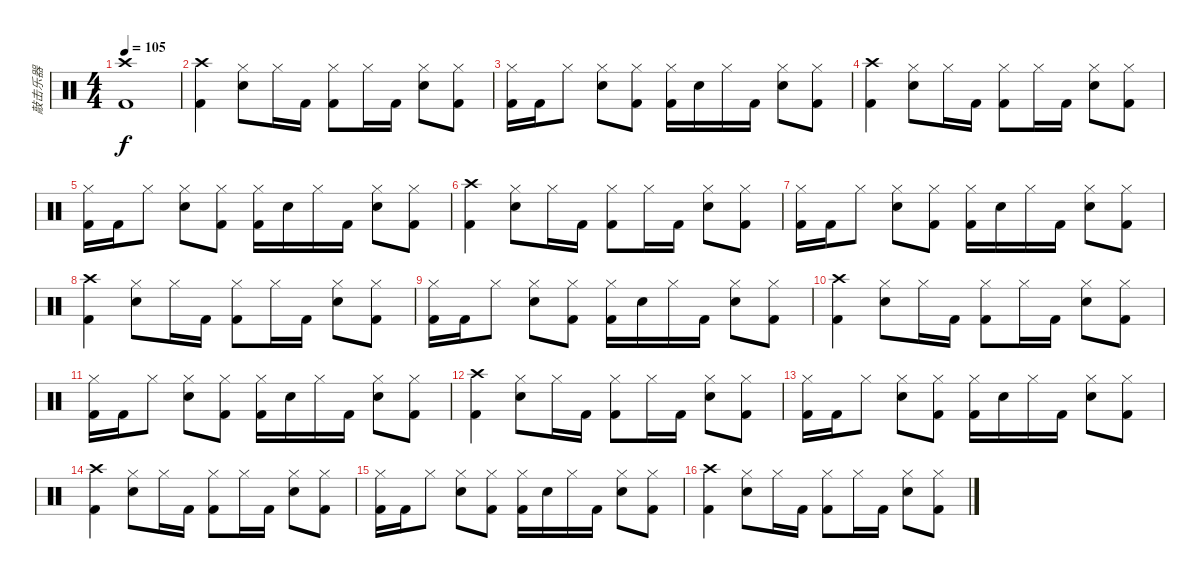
\track ("敲击乐器" "敲击乐器") {instrument percussion}
\staff {score}
\articulation defaults
\ts (4 4)
\tempo 105
\clef neutral
\ks c
("Crash high (hit)" "Kick (hit) 2").1{dy f} |
("Crash high (hit)" "Kick (hit) 2").4 ("Hi-Hat (closed)" "Snare (hit) 2").8 "Hi-Hat (closed)".16 "Kick (hit) 2".16 ("Hi-Hat (closed)" "Kick (hit) 2").8 "Hi-Hat (closed)".16 "Kick (hit) 2".16 ("Hi-Hat (closed)" "Snare (hit) 2").8 ("Hi-Hat (closed)" "Kick (hit) 2").8 |
("Hi-Hat (closed)" "Kick (hit) 2").16 "Kick (hit) 2".16 "Hi-Hat (closed)".8 ("Hi-Hat (closed)" "Snare (hit) 2").8 ("Hi-Hat (closed)" "Kick (hit) 2").8 ("Hi-Hat (closed)" "Kick (hit) 2").16 "Snare (hit) 2".16 "Hi-Hat (closed)".16 "Kick (hit) 2".16 ("Hi-Hat (closed)" "Snare (hit) 2").8 ("Hi-Hat (closed)" "Kick (hit) 2").8 |
("Crash high (hit)" "Kick (hit) 2").4 ("Hi-Hat (closed)" "Snare (hit) 2").8 "Hi-Hat (closed)".16 "Kick (hit) 2".16 ("Hi-Hat (closed)" "Kick (hit) 2").8 "Hi-Hat (closed)".16 "Kick (hit) 2".16 ("Hi-Hat (closed)" "Snare (hit) 2").8 ("Hi-Hat (closed)" "Kick (hit) 2").8 |
("Hi-Hat (closed)" "Kick (hit) 2").16 "Kick (hit) 2".16 "Hi-Hat (closed)".8 ("Hi-Hat (closed)" "Snare (hit) 2").8 ("Hi-Hat (closed)" "Kick (hit) 2").8 ("Hi-Hat (closed)" "Kick (hit) 2").16 "Snare (hit) 2".16 "Hi-Hat (closed)".16 "Kick (hit) 2".16 ("Hi-Hat (closed)" "Snare (hit) 2").8 ("Hi-Hat (closed)" "Kick (hit) 2").8 |
("Crash high (hit)" "Kick (hit) 2").4 ("Hi-Hat (closed)" "Snare (hit) 2").8 "Hi-Hat (closed)".16 "Kick (hit) 2".16 ("Hi-Hat (closed)" "Kick (hit) 2").8 "Hi-Hat (closed)".16 "Kick (hit) 2".16 ("Hi-Hat (closed)" "Snare (hit) 2").8 ("Hi-Hat (closed)" "Kick (hit) 2").8 |
("Hi-Hat (closed)" "Kick (hit) 2").16 "Kick (hit) 2".16 "Hi-Hat (closed)".8 ("Hi-Hat (closed)" "Snare (hit) 2").8 ("Hi-Hat (closed)" "Kick (hit) 2").8 ("Hi-Hat (closed)" "Kick (hit) 2").16 "Snare (hit) 2".16 "Hi-Hat (closed)".16 "Kick (hit) 2".16 ("Hi-Hat (closed)" "Snare (hit) 2").8 ("Hi-Hat (closed)" "Kick (hit) 2").8 |
("Crash high (hit)" "Kick (hit) 2").4 ("Hi-Hat (closed)" "Snare (hit) 2").8 "Hi-Hat (closed)".16 "Kick (hit) 2".16 ("Hi-Hat (closed)" "Kick (hit) 2").8 "Hi-Hat (closed)".16 "Kick (hit) 2".16 ("Hi-Hat (closed)" "Snare (hit) 2").8 ("Hi-Hat (closed)" "Kick (hit) 2").8 |
("Hi-Hat (closed)" "Kick (hit) 2").16 "Kick (hit) 2".16 "Hi-Hat (closed)".8 ("Hi-Hat (closed)" "Snare (hit) 2").8 ("Hi-Hat (closed)" "Kick (hit) 2").8 ("Hi-Hat (closed)" "Kick (hit) 2").16 "Snare (hit) 2".16 "Hi-Hat (closed)".16 "Kick (hit) 2".16 ("Hi-Hat (closed)" "Snare (hit) 2").8 ("Hi-Hat (closed)" "Kick (hit) 2").8 |
("Crash high (hit)" "Kick (hit) 2").4 ("Hi-Hat (closed)" "Snare (hit) 2").8 "Hi-Hat (closed)".16 "Kick (hit) 2".16 ("Hi-Hat (closed)" "Kick (hit) 2").8 "Hi-Hat (closed)".16 "Kick (hit) 2".16 ("Hi-Hat (closed)" "Snare (hit) 2").8 ("Hi-Hat (closed)" "Kick (hit) 2").8 |
("Hi-Hat (closed)" "Kick (hit) 2").16 "Kick (hit) 2".16 "Hi-Hat (closed)".8 ("Hi-Hat (closed)" "Snare (hit) 2").8 ("Hi-Hat (closed)" "Kick (hit) 2").8 ("Hi-Hat (closed)" "Kick (hit) 2").16 "Snare (hit) 2".16 "Hi-Hat (closed)".16 "Kick (hit) 2".16 ("Hi-Hat (closed)" "Snare (hit) 2").8 ("Hi-Hat (closed)" "Kick (hit) 2").8 |
("Crash high (hit)" "Kick (hit) 2").4 ("Hi-Hat (closed)" "Snare (hit) 2").8 "Hi-Hat (closed)".16 "Kick (hit) 2".16 ("Hi-Hat (closed)" "Kick (hit) 2").8 "Hi-Hat (closed)".16 "Kick (hit) 2".16 ("Hi-Hat (closed)" "Snare (hit) 2").8 ("Hi-Hat (closed)" "Kick (hit) 2").8 |
("Hi-Hat (closed)" "Kick (hit) 2").16 "Kick (hit) 2".16 "Hi-Hat (closed)".8 ("Hi-Hat (closed)" "Snare (hit) 2").8 ("Hi-Hat (closed)" "Kick (hit) 2").8 ("Hi-Hat (closed)" "Kick (hit) 2").16 "Snare (hit) 2".16 "Hi-Hat (closed)".16 "Kick (hit) 2".16 ("Hi-Hat (closed)" "Snare (hit) 2").8 ("Hi-Hat (closed)" "Kick (hit) 2").8 |
("Crash high (hit)" "Kick (hit) 2").4 ("Hi-Hat (closed)" "Snare (hit) 2").8 "Hi-Hat (closed)".16 "Kick (hit) 2".16 ("Hi-Hat (closed)" "Kick (hit) 2").8 "Hi-Hat (closed)".16 "Kick (hit) 2".16 ("Hi-Hat (closed)" "Snare (hit) 2").8 ("Hi-Hat (closed)" "Kick (hit) 2").8 |
("Hi-Hat (closed)" "Kick (hit) 2").16 "Kick (hit) 2".16 "Hi-Hat (closed)".8 ("Hi-Hat (closed)" "Snare (hit) 2").8 ("Hi-Hat (closed)" "Kick (hit) 2").8 ("Hi-Hat (closed)" "Kick (hit) 2").16 "Snare (hit) 2".16 "Hi-Hat (closed)".16 "Kick (hit) 2".16 ("Hi-Hat (closed)" "Snare (hit) 2").8 ("Hi-Hat (closed)" "Kick (hit) 2").8 |
("Crash high (hit)" "Kick (hit) 2").4 ("Hi-Hat (closed)" "Snare (hit) 2").8 "Hi-Hat (closed)".16 "Kick (hit) 2".16 ("Hi-Hat (closed)" "Kick (hit) 2").8 "Hi-Hat (closed)".16 "Kick (hit) 2".16 ("Hi-Hat (closed)" "Snare (hit) 2").8 ("Hi-Hat (closed)" "Kick (hit) 2").8
